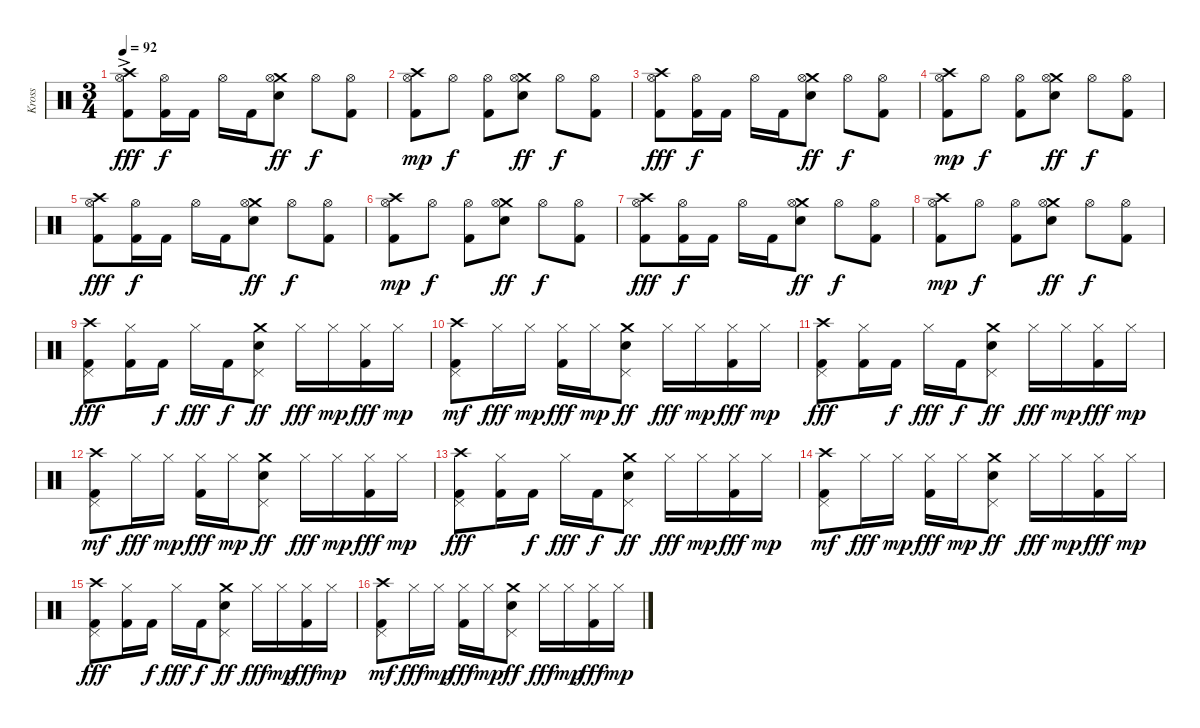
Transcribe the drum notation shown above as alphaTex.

\track ("Kross" "Kross") {instrument percussion}
\staff {score}
\articulation defaults
\ts (3 4)
\tempo 92
\clef neutral
\ks c
("Crash high (hit)"{ac} "Hi-Hat (open)" "Kick (hit) 2").8{dy fff} ("Hi-Hat (open)" "Kick (hit) 2").16{dy f} "Kick (hit) 2".16 "Hi-Hat (open)".16 "Kick (hit) 2".16 ("Crash medium (hit)" "Hi-Hat (open)" "Snare (hit) 2").8{dy ff} "Hi-Hat (open)".8{dy f} ("Hi-Hat (open)" "Kick (hit) 2").8 |
("Crash high (hit)" "Hi-Hat (open)" "Kick (hit) 2").8{dy mp} "Hi-Hat (open)".8{dy f} ("Hi-Hat (open)" "Kick (hit) 2").8 ("Crash medium (hit)" "Hi-Hat (open)" "Snare (hit) 2").8{dy ff} "Hi-Hat (open)".8{dy f} ("Hi-Hat (open)" "Kick (hit) 2").8 |
("Crash high (hit)" "Hi-Hat (open)" "Kick (hit) 2").8{dy fff} ("Hi-Hat (open)" "Kick (hit) 2").16{dy f} "Kick (hit) 2".16 "Hi-Hat (open)".16 "Kick (hit) 2".16 ("Crash medium (hit)" "Hi-Hat (open)" "Snare (hit) 2").8{dy ff} "Hi-Hat (open)".8{dy f} ("Hi-Hat (open)" "Kick (hit) 2").8 |
("Crash high (hit)" "Hi-Hat (open)" "Kick (hit) 2").8{dy mp} "Hi-Hat (open)".8{dy f} ("Hi-Hat (open)" "Kick (hit) 2").8 ("Crash medium (hit)" "Hi-Hat (open)" "Snare (hit) 2").8{dy ff} "Hi-Hat (open)".8{dy f} ("Hi-Hat (open)" "Kick (hit) 2").8 |
("Crash high (hit)" "Hi-Hat (open)" "Kick (hit) 2").8{dy fff} ("Hi-Hat (open)" "Kick (hit) 2").16{dy f} "Kick (hit) 2".16 "Hi-Hat (open)".16 "Kick (hit) 2".16 ("Crash medium (hit)" "Hi-Hat (open)" "Snare (hit) 2").8{dy ff} "Hi-Hat (open)".8{dy f} ("Hi-Hat (open)" "Kick (hit) 2").8 |
("Crash high (hit)" "Hi-Hat (open)" "Kick (hit) 2").8{dy mp} "Hi-Hat (open)".8{dy f} ("Hi-Hat (open)" "Kick (hit) 2").8 ("Crash medium (hit)" "Hi-Hat (open)" "Snare (hit) 2").8{dy ff} "Hi-Hat (open)".8{dy f} ("Hi-Hat (open)" "Kick (hit) 2").8 |
("Crash high (hit)" "Hi-Hat (open)" "Kick (hit) 2").8{dy fff} ("Hi-Hat (open)" "Kick (hit) 2").16{dy f} "Kick (hit) 2".16 "Hi-Hat (open)".16 "Kick (hit) 2".16 ("Crash medium (hit)" "Hi-Hat (open)" "Snare (hit) 2").8{dy ff} "Hi-Hat (open)".8{dy f} ("Hi-Hat (open)" "Kick (hit) 2").8 |
("Crash high (hit)" "Hi-Hat (open)" "Kick (hit) 2").8{dy mp} "Hi-Hat (open)".8{dy f} ("Hi-Hat (open)" "Kick (hit) 2").8 ("Crash medium (hit)" "Hi-Hat (open)" "Snare (hit) 2").8{dy ff} "Hi-Hat (open)".8{dy f} ("Hi-Hat (open)" "Kick (hit) 2").8 |
("Crash high (hit)" "Pedal Hi-Hat (hit)" "Kick (hit) 2").8{dy fff} ("Hi-Hat (closed)" "Kick (hit) 2").16 "Kick (hit) 2".16{dy f} "Hi-Hat (closed)".16{dy fff} "Kick (hit) 2".16{dy f} ("Crash medium (hit)" "Pedal Hi-Hat (hit)" "Snare (hit) 2").8{dy ff} "Hi-Hat (closed)".16{dy fff} "Hi-Hat (closed)".16{dy mp} ("Hi-Hat (closed)" "Kick (hit) 2").16{dy fff} "Hi-Hat (closed)".16{dy mp} |
("Crash high (hit)" "Pedal Hi-Hat (hit)" "Kick (hit) 2").8{dy mf} "Hi-Hat (closed)".16{dy fff} "Hi-Hat (closed)".16{dy mp} ("Hi-Hat (closed)" "Kick (hit) 2").16{dy fff} "Hi-Hat (closed)".16{dy mp} ("Crash medium (hit)" "Pedal Hi-Hat (hit)" "Snare (hit) 2").8{dy ff} "Hi-Hat (closed)".16{dy fff} "Hi-Hat (closed)".16{dy mp} ("Hi-Hat (closed)" "Kick (hit) 2").16{dy fff} "Hi-Hat (closed)".16{dy mp} |
("Crash high (hit)" "Pedal Hi-Hat (hit)" "Kick (hit) 2").8{dy fff} ("Hi-Hat (closed)" "Kick (hit) 2").16 "Kick (hit) 2".16{dy f} "Hi-Hat (closed)".16{dy fff} "Kick (hit) 2".16{dy f} ("Crash medium (hit)" "Pedal Hi-Hat (hit)" "Snare (hit) 2").8{dy ff} "Hi-Hat (closed)".16{dy fff} "Hi-Hat (closed)".16{dy mp} ("Hi-Hat (closed)" "Kick (hit) 2").16{dy fff} "Hi-Hat (closed)".16{dy mp} |
("Crash high (hit)" "Pedal Hi-Hat (hit)" "Kick (hit) 2").8{dy mf} "Hi-Hat (closed)".16{dy fff} "Hi-Hat (closed)".16{dy mp} ("Hi-Hat (closed)" "Kick (hit) 2").16{dy fff} "Hi-Hat (closed)".16{dy mp} ("Crash medium (hit)" "Pedal Hi-Hat (hit)" "Snare (hit) 2").8{dy ff} "Hi-Hat (closed)".16{dy fff} "Hi-Hat (closed)".16{dy mp} ("Hi-Hat (closed)" "Kick (hit) 2").16{dy fff} "Hi-Hat (closed)".16{dy mp} |
("Crash high (hit)" "Pedal Hi-Hat (hit)" "Kick (hit) 2").8{dy fff} ("Hi-Hat (closed)" "Kick (hit) 2").16 "Kick (hit) 2".16{dy f} "Hi-Hat (closed)".16{dy fff} "Kick (hit) 2".16{dy f} ("Crash medium (hit)" "Pedal Hi-Hat (hit)" "Snare (hit) 2").8{dy ff} "Hi-Hat (closed)".16{dy fff} "Hi-Hat (closed)".16{dy mp} ("Hi-Hat (closed)" "Kick (hit) 2").16{dy fff} "Hi-Hat (closed)".16{dy mp} |
("Crash high (hit)" "Pedal Hi-Hat (hit)" "Kick (hit) 2").8{dy mf} "Hi-Hat (closed)".16{dy fff} "Hi-Hat (closed)".16{dy mp} ("Hi-Hat (closed)" "Kick (hit) 2").16{dy fff} "Hi-Hat (closed)".16{dy mp} ("Crash medium (hit)" "Pedal Hi-Hat (hit)" "Snare (hit) 2").8{dy ff} "Hi-Hat (closed)".16{dy fff} "Hi-Hat (closed)".16{dy mp} ("Hi-Hat (closed)" "Kick (hit) 2").16{dy fff} "Hi-Hat (closed)".16{dy mp} |
("Crash high (hit)" "Pedal Hi-Hat (hit)" "Kick (hit) 2").8{dy fff} ("Hi-Hat (closed)" "Kick (hit) 2").16 "Kick (hit) 2".16{dy f} "Hi-Hat (closed)".16{dy fff} "Kick (hit) 2".16{dy f} ("Crash medium (hit)" "Pedal Hi-Hat (hit)" "Snare (hit) 2").8{dy ff} "Hi-Hat (closed)".16{dy fff} "Hi-Hat (closed)".16{dy mp} ("Hi-Hat (closed)" "Kick (hit) 2").16{dy fff} "Hi-Hat (closed)".16{dy mp} |
("Crash high (hit)" "Pedal Hi-Hat (hit)" "Kick (hit) 2").8{dy mf} "Hi-Hat (closed)".16{dy fff} "Hi-Hat (closed)".16{dy mp} ("Hi-Hat (closed)" "Kick (hit) 2").16{dy fff} "Hi-Hat (closed)".16{dy mp} ("Crash medium (hit)" "Pedal Hi-Hat (hit)" "Snare (hit) 2").8{dy ff} "Hi-Hat (closed)".16{dy fff} "Hi-Hat (closed)".16{dy mp} ("Hi-Hat (closed)" "Kick (hit) 2").16{dy fff} "Hi-Hat (closed)".16{dy mp}
